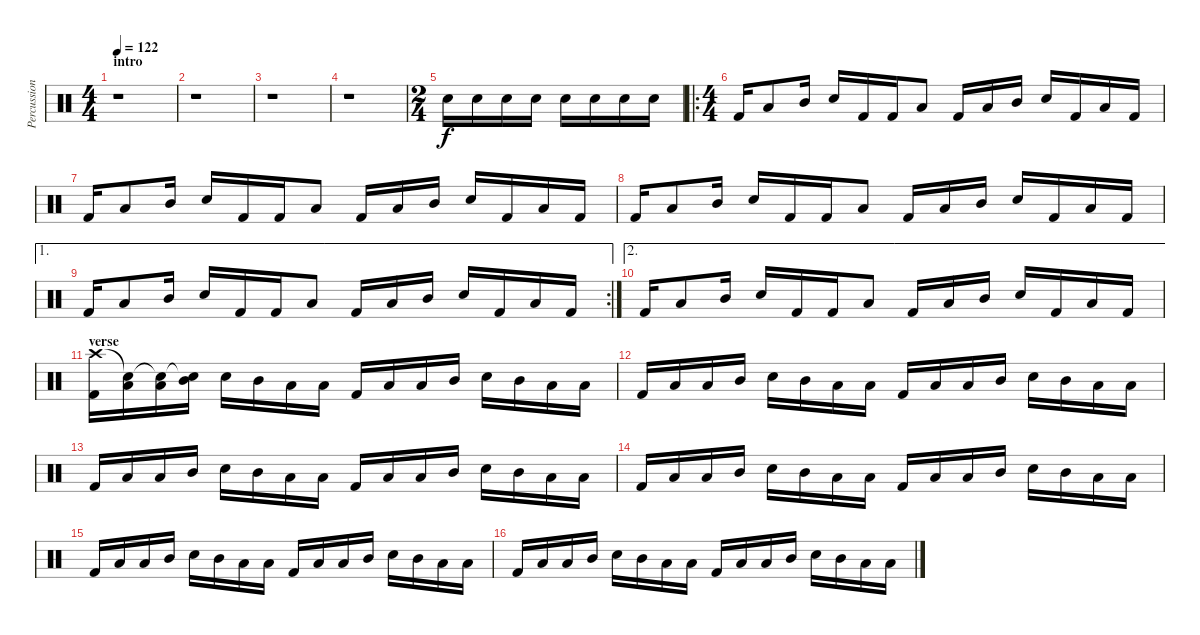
\track ("Percussion" "Percussion") {instrument percussion}
\staff {score}
\articulation defaults
\ts (4 4)
\section ("" "intro")
\tempo 122
\clef neutral
\ks c
r.1{dy f} |
r.1 |
r.1 |
r.1 |
\ts (2 4)
"Electric Snare (hit)".16 "Electric Snare (hit)".16 "Electric Snare (hit)".16 "Electric Snare (hit)".16 "Electric Snare (hit)".16 "Electric Snare (hit)".16 "Electric Snare (hit)".16 "Electric Snare (hit)".16 |
\ro
\ts (4 4)
"Kick (hit) 2".16 "Low Tom (hit)".8 "Mid Tom (hit)".16 "Electric Snare (hit)".16 "Kick (hit) 2".16 "Kick (hit) 2".16 "Low Tom (hit)".8 "Kick (hit) 2".16 "Low Tom (hit)".16 "Mid Tom (hit)".16 "Electric Snare (hit)".16 "Kick (hit) 2".16 "Low Tom (hit)".16 "Kick (hit) 2".16 |
"Kick (hit) 2".16 "Low Tom (hit)".8 "Mid Tom (hit)".16 "Electric Snare (hit)".16 "Kick (hit) 2".16 "Kick (hit) 2".16 "Low Tom (hit)".8 "Kick (hit) 2".16 "Low Tom (hit)".16 "Mid Tom (hit)".16 "Electric Snare (hit)".16 "Kick (hit) 2".16 "Low Tom (hit)".16 "Kick (hit) 2".16 |
"Kick (hit) 2".16 "Low Tom (hit)".8 "Mid Tom (hit)".16 "Electric Snare (hit)".16 "Kick (hit) 2".16 "Kick (hit) 2".16 "Low Tom (hit)".8 "Kick (hit) 2".16 "Low Tom (hit)".16 "Mid Tom (hit)".16 "Electric Snare (hit)".16 "Kick (hit) 2".16 "Low Tom (hit)".16 "Kick (hit) 2".16 |
\ae 1
\rc 2 "Kick (hit) 2".16 "Low Tom (hit)".8 "Mid Tom (hit)".16 "Electric Snare (hit)".16 "Kick (hit) 2".16 "Kick (hit) 2".16 "Low Tom (hit)".8 "Kick (hit) 2".16 "Low Tom (hit)".16 "Mid Tom (hit)".16 "Electric Snare (hit)".16 "Kick (hit) 2".16 "Low Tom (hit)".16 "Kick (hit) 2".16
|
\ae 2 "Kick (hit) 2".16 "Low Tom (hit)".8 "Mid Tom (hit)".16 "Electric Snare (hit)".16 "Kick (hit) 2".16 "Kick (hit) 2".16 "Low Tom (hit)".8 "Kick (hit) 2".16 "Low Tom (hit)".16 "Mid Tom (hit)".16 "Electric Snare (hit)".16 "Kick (hit) 2".16 "Low Tom (hit)".16 "Kick (hit) 2".16
|
\section ("" "verse")
("Crash high (hit)" "Kick (hit) 2").16 ("Snare (hit)"{t} "Low Tom (hit)").16 ("Snare (hit)"{t} "Low Tom (hit)").16 ("Snare (hit)"{t} "Mid Tom (hit)").16 "Electric Snare (hit)".16 "Mid Tom (hit)".16 "Low Tom (hit)".16 "Low Tom (hit)".16 "Kick (hit) 2".16 "Low Tom (hit)".16 "Low Tom (hit)".16 "Mid Tom (hit)".16 "Electric Snare (hit)".16 "Mid Tom (hit)".16 "Low Tom (hit)".16 "Low Tom (hit)".16 |
"Kick (hit) 2".16 "Low Tom (hit)".16 "Low Tom (hit)".16 "Mid Tom (hit)".16 "Electric Snare (hit)".16 "Mid Tom (hit)".16 "Low Tom (hit)".16 "Low Tom (hit)".16 "Kick (hit) 2".16 "Low Tom (hit)".16 "Low Tom (hit)".16 "Mid Tom (hit)".16 "Electric Snare (hit)".16 "Mid Tom (hit)".16 "Low Tom (hit)".16 "Low Tom (hit)".16 |
"Kick (hit) 2".16 "Low Tom (hit)".16 "Low Tom (hit)".16 "Mid Tom (hit)".16 "Electric Snare (hit)".16 "Mid Tom (hit)".16 "Low Tom (hit)".16 "Low Tom (hit)".16 "Kick (hit) 2".16 "Low Tom (hit)".16 "Low Tom (hit)".16 "Mid Tom (hit)".16 "Electric Snare (hit)".16 "Mid Tom (hit)".16 "Low Tom (hit)".16 "Low Tom (hit)".16 |
"Kick (hit) 2".16 "Low Tom (hit)".16 "Low Tom (hit)".16 "Mid Tom (hit)".16 "Electric Snare (hit)".16 "Mid Tom (hit)".16 "Low Tom (hit)".16 "Low Tom (hit)".16 "Kick (hit) 2".16 "Low Tom (hit)".16 "Low Tom (hit)".16 "Mid Tom (hit)".16 "Electric Snare (hit)".16 "Mid Tom (hit)".16 "Low Tom (hit)".16 "Low Tom (hit)".16 |
"Kick (hit) 2".16 "Low Tom (hit)".16 "Low Tom (hit)".16 "Mid Tom (hit)".16 "Electric Snare (hit)".16 "Mid Tom (hit)".16 "Low Tom (hit)".16 "Low Tom (hit)".16 "Kick (hit) 2".16 "Low Tom (hit)".16 "Low Tom (hit)".16 "Mid Tom (hit)".16 "Electric Snare (hit)".16 "Mid Tom (hit)".16 "Low Tom (hit)".16 "Low Tom (hit)".16 |
"Kick (hit) 2".16 "Low Tom (hit)".16 "Low Tom (hit)".16 "Mid Tom (hit)".16 "Electric Snare (hit)".16 "Mid Tom (hit)".16 "Low Tom (hit)".16 "Low Tom (hit)".16 "Kick (hit) 2".16 "Low Tom (hit)".16 "Low Tom (hit)".16 "Mid Tom (hit)".16 "Electric Snare (hit)".16 "Mid Tom (hit)".16 "Low Tom (hit)".16 "Low Tom (hit)".16
